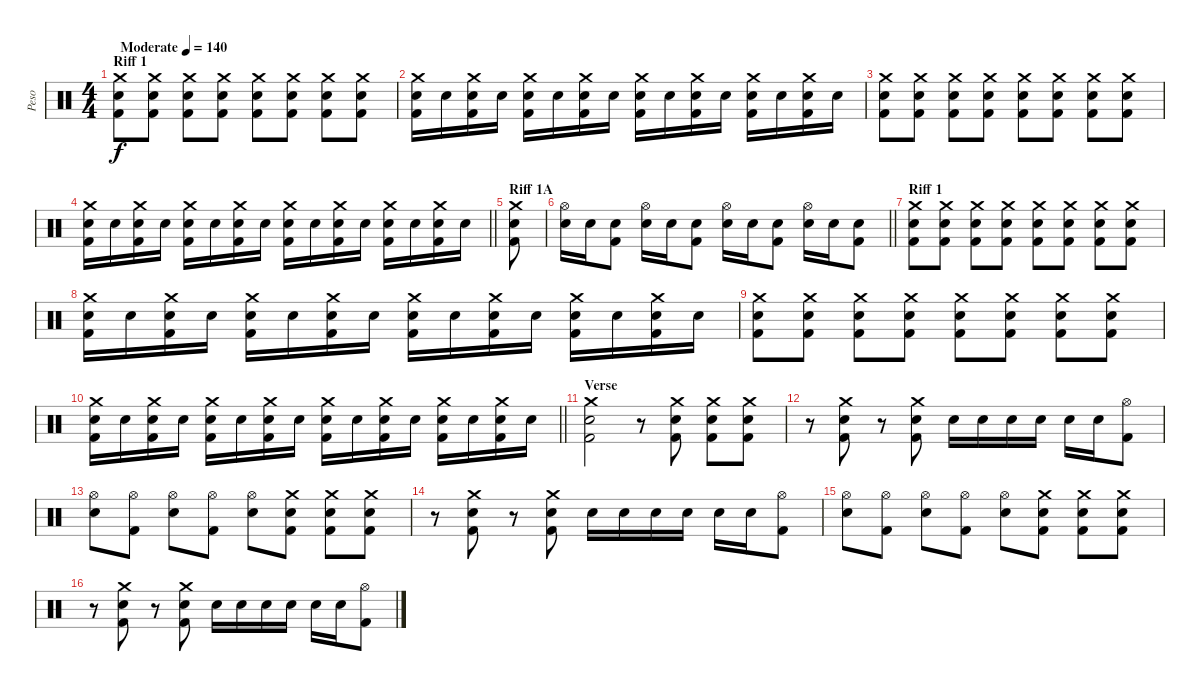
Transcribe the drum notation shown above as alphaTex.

\track ("Peso" "Peso") {instrument percussion}
\staff {score}
\articulation defaults
\ts (4 4)
\section ("" "Riff 1")
\tempo (140 "Moderate")
\clef neutral
\ks c
("Crash medium (hit)" "Electric Snare (hit)" "Kick (hit) 2").8{dy f} ("Crash medium (hit)" "Electric Snare (hit)" "Kick (hit) 2").8 ("Crash medium (hit)" "Electric Snare (hit)" "Kick (hit) 2").8 ("Crash medium (hit)" "Electric Snare (hit)" "Kick (hit) 2").8 ("Crash medium (hit)" "Electric Snare (hit)" "Kick (hit) 2").8 ("Crash medium (hit)" "Electric Snare (hit)" "Kick (hit) 2").8 ("Crash medium (hit)" "Electric Snare (hit)" "Kick (hit) 2").8 ("Crash medium (hit)" "Electric Snare (hit)" "Kick (hit) 2").8 |
("Crash medium (hit)" "Electric Snare (hit)" "Kick (hit) 2").16 "Electric Snare (hit)".16 ("Crash medium (hit)" "Electric Snare (hit)" "Kick (hit) 2").16 "Electric Snare (hit)".16 ("Crash medium (hit)" "Electric Snare (hit)" "Kick (hit) 2").16 "Electric Snare (hit)".16 ("Crash medium (hit)" "Electric Snare (hit)" "Kick (hit) 2").16 "Electric Snare (hit)".16 ("Crash medium (hit)" "Electric Snare (hit)" "Kick (hit) 2").16 "Electric Snare (hit)".16 ("Crash medium (hit)" "Electric Snare (hit)" "Kick (hit) 2").16 "Electric Snare (hit)".16 ("Crash medium (hit)" "Electric Snare (hit)" "Kick (hit) 2").16 "Electric Snare (hit)".16 ("Crash medium (hit)" "Electric Snare (hit)" "Kick (hit) 2").16 "Electric Snare (hit)".16 |
("Crash medium (hit)" "Electric Snare (hit)" "Kick (hit) 2").8 ("Crash medium (hit)" "Electric Snare (hit)" "Kick (hit) 2").8 ("Crash medium (hit)" "Electric Snare (hit)" "Kick (hit) 2").8 ("Crash medium (hit)" "Electric Snare (hit)" "Kick (hit) 2").8 ("Crash medium (hit)" "Electric Snare (hit)" "Kick (hit) 2").8 ("Crash medium (hit)" "Electric Snare (hit)" "Kick (hit) 2").8 ("Crash medium (hit)" "Electric Snare (hit)" "Kick (hit) 2").8 ("Crash medium (hit)" "Electric Snare (hit)" "Kick (hit) 2").8 |
\barLineRight lightlight
("Crash medium (hit)" "Electric Snare (hit)" "Kick (hit) 2").16 "Electric Snare (hit)".16 ("Crash medium (hit)" "Electric Snare (hit)" "Kick (hit) 2").16 "Electric Snare (hit)".16 ("Crash medium (hit)" "Electric Snare (hit)" "Kick (hit) 2").16 "Electric Snare (hit)".16 ("Crash medium (hit)" "Electric Snare (hit)" "Kick (hit) 2").16 "Electric Snare (hit)".16 ("Crash medium (hit)" "Electric Snare (hit)" "Kick (hit) 2").16 "Electric Snare (hit)".16 ("Crash medium (hit)" "Electric Snare (hit)" "Kick (hit) 2").16 "Electric Snare (hit)".16 ("Crash medium (hit)" "Electric Snare (hit)" "Kick (hit) 2").16 "Electric Snare (hit)".16 ("Crash medium (hit)" "Electric Snare (hit)" "Kick (hit) 2").16 "Electric Snare (hit)".16 |
\section ("" "Riff 1A")
("Crash medium (hit)" "Electric Snare (hit)" "Kick (hit) 2").8 |
\barLineRight lightlight
("Hi-Hat (open)" "Electric Snare (hit)").16 "Electric Snare (hit)".16 ("Electric Snare (hit)" "Kick (hit) 2").8 ("Hi-Hat (open)" "Electric Snare (hit)").16 "Electric Snare (hit)".16 ("Electric Snare (hit)" "Kick (hit) 2").8 ("Hi-Hat (open)" "Electric Snare (hit)").16 "Electric Snare (hit)".16 ("Electric Snare (hit)" "Kick (hit) 2").8 ("Hi-Hat (open)" "Electric Snare (hit)").16 "Electric Snare (hit)".16 ("Electric Snare (hit)" "Kick (hit) 2").8 |
\section ("" "Riff 1")
("Crash medium (hit)" "Electric Snare (hit)" "Kick (hit) 2").8 ("Crash medium (hit)" "Electric Snare (hit)" "Kick (hit) 2").8 ("Crash medium (hit)" "Electric Snare (hit)" "Kick (hit) 2").8 ("Crash medium (hit)" "Electric Snare (hit)" "Kick (hit) 2").8 ("Crash medium (hit)" "Electric Snare (hit)" "Kick (hit) 2").8 ("Crash medium (hit)" "Electric Snare (hit)" "Kick (hit) 2").8 ("Crash medium (hit)" "Electric Snare (hit)" "Kick (hit) 2").8 ("Crash medium (hit)" "Electric Snare (hit)" "Kick (hit) 2").8 |
("Crash medium (hit)" "Electric Snare (hit)" "Kick (hit) 2").16 "Electric Snare (hit)".16 ("Crash medium (hit)" "Electric Snare (hit)" "Kick (hit) 2").16 "Electric Snare (hit)".16 ("Crash medium (hit)" "Electric Snare (hit)" "Kick (hit) 2").16 "Electric Snare (hit)".16 ("Crash medium (hit)" "Electric Snare (hit)" "Kick (hit) 2").16 "Electric Snare (hit)".16 ("Crash medium (hit)" "Electric Snare (hit)" "Kick (hit) 2").16 "Electric Snare (hit)".16 ("Crash medium (hit)" "Electric Snare (hit)" "Kick (hit) 2").16 "Electric Snare (hit)".16 ("Crash medium (hit)" "Electric Snare (hit)" "Kick (hit) 2").16 "Electric Snare (hit)".16 ("Crash medium (hit)" "Electric Snare (hit)" "Kick (hit) 2").16 "Electric Snare (hit)".16 |
("Crash medium (hit)" "Electric Snare (hit)" "Kick (hit) 2").8 ("Crash medium (hit)" "Electric Snare (hit)" "Kick (hit) 2").8 ("Crash medium (hit)" "Electric Snare (hit)" "Kick (hit) 2").8 ("Crash medium (hit)" "Electric Snare (hit)" "Kick (hit) 2").8 ("Crash medium (hit)" "Electric Snare (hit)" "Kick (hit) 2").8 ("Crash medium (hit)" "Electric Snare (hit)" "Kick (hit) 2").8 ("Crash medium (hit)" "Electric Snare (hit)" "Kick (hit) 2").8 ("Crash medium (hit)" "Electric Snare (hit)" "Kick (hit) 2").8 |
\barLineRight lightlight
("Crash medium (hit)" "Electric Snare (hit)" "Kick (hit) 2").16 "Electric Snare (hit)".16 ("Crash medium (hit)" "Electric Snare (hit)" "Kick (hit) 2").16 "Electric Snare (hit)".16 ("Crash medium (hit)" "Electric Snare (hit)" "Kick (hit) 2").16 "Electric Snare (hit)".16 ("Crash medium (hit)" "Electric Snare (hit)" "Kick (hit) 2").16 "Electric Snare (hit)".16 ("Crash medium (hit)" "Electric Snare (hit)" "Kick (hit) 2").16 "Electric Snare (hit)".16 ("Crash medium (hit)" "Electric Snare (hit)" "Kick (hit) 2").16 "Electric Snare (hit)".16 ("Crash medium (hit)" "Electric Snare (hit)" "Kick (hit) 2").16 "Electric Snare (hit)".16 ("Crash medium (hit)" "Electric Snare (hit)" "Kick (hit) 2").16 "Electric Snare (hit)".16 |
\section ("" "Verse")
("Crash medium (hit)" "Electric Snare (hit)" "Kick (hit) 2").2 r.8 ("Crash medium (hit)" "Electric Snare (hit)" "Kick (hit) 2").8 ("Crash medium (hit)" "Electric Snare (hit)" "Kick (hit) 2").8 ("Crash medium (hit)" "Electric Snare (hit)" "Kick (hit) 2").8 |
r.8 ("Crash medium (hit)" "Electric Snare (hit)" "Kick (hit) 2").8 r.8 ("Crash medium (hit)" "Electric Snare (hit)" "Kick (hit) 2").8 "Electric Snare (hit)".16 "Electric Snare (hit)".16 "Electric Snare (hit)".16 "Electric Snare (hit)".16 "Electric Snare (hit)".16 "Electric Snare (hit)".16 ("Hi-Hat (open)" "Kick (hit) 2").8 |
("Hi-Hat (open)" "Electric Snare (hit)").8 ("Hi-Hat (open)" "Kick (hit) 2").8 ("Hi-Hat (open)" "Electric Snare (hit)").8 ("Hi-Hat (open)" "Kick (hit) 2").8 ("Hi-Hat (open)" "Electric Snare (hit)").8 ("Crash medium (hit)" "Electric Snare (hit)" "Kick (hit) 2").8 ("Crash medium (hit)" "Electric Snare (hit)" "Kick (hit) 2").8 ("Crash medium (hit)" "Electric Snare (hit)" "Kick (hit) 2").8 |
r.8 ("Crash medium (hit)" "Electric Snare (hit)" "Kick (hit) 2").8 r.8 ("Crash medium (hit)" "Electric Snare (hit)" "Kick (hit) 2").8 "Electric Snare (hit)".16 "Electric Snare (hit)".16 "Electric Snare (hit)".16 "Electric Snare (hit)".16 "Electric Snare (hit)".16 "Electric Snare (hit)".16 ("Hi-Hat (open)" "Kick (hit) 2").8 |
("Hi-Hat (open)" "Electric Snare (hit)").8 ("Hi-Hat (open)" "Kick (hit) 2").8 ("Hi-Hat (open)" "Electric Snare (hit)").8 ("Hi-Hat (open)" "Kick (hit) 2").8 ("Hi-Hat (open)" "Electric Snare (hit)").8 ("Crash medium (hit)" "Electric Snare (hit)" "Kick (hit) 2").8 ("Crash medium (hit)" "Electric Snare (hit)" "Kick (hit) 2").8 ("Crash medium (hit)" "Electric Snare (hit)" "Kick (hit) 2").8 |
r.8 ("Crash medium (hit)" "Electric Snare (hit)" "Kick (hit) 2").8 r.8 ("Crash medium (hit)" "Electric Snare (hit)" "Kick (hit) 2").8 "Electric Snare (hit)".16 "Electric Snare (hit)".16 "Electric Snare (hit)".16 "Electric Snare (hit)".16 "Electric Snare (hit)".16 "Electric Snare (hit)".16 ("Hi-Hat (open)" "Kick (hit) 2").8
